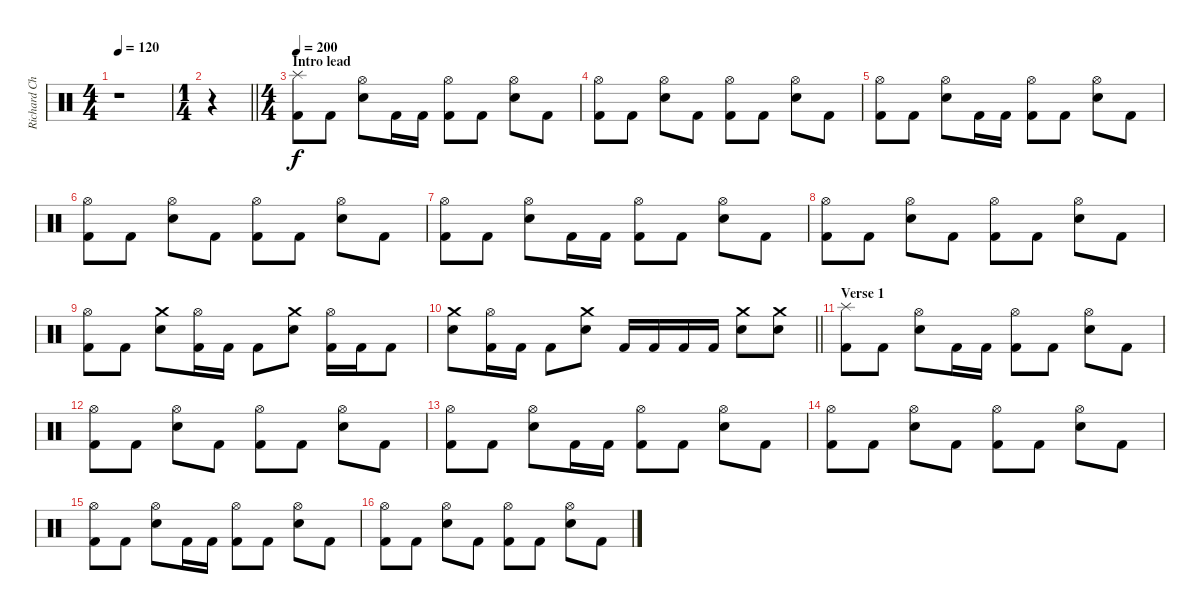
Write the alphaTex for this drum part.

\track ("Richard Christy" "Richard Ch") {instrument percussion}
\staff {score}
\articulation defaults
\ts (4 4)
\tempo 120
\clef neutral
\ks c
r.1{dy f} |
\ts (1 4)
\barLineRight lightlight
r.4 |
\ts (4 4)
\section ("" "Intro lead")
\tempo 200
("Splash (hit)" "Kick (hit) 2").8 "Kick (hit) 2".8 ("Hi-Hat (open)" "Electric Snare (hit)").8 "Kick (hit) 2".16 "Kick (hit) 2".16 ("Hi-Hat (open)" "Kick (hit) 2").8 "Kick (hit) 2".8 ("Hi-Hat (open)" "Electric Snare (hit)").8 "Kick (hit) 2".8 |
("Hi-Hat (open)" "Kick (hit) 2").8 "Kick (hit) 2".8 ("Hi-Hat (open)" "Electric Snare (hit)").8 "Kick (hit) 2".8 ("Hi-Hat (open)" "Kick (hit) 2").8 "Kick (hit) 2".8 ("Hi-Hat (open)" "Electric Snare (hit)").8 "Kick (hit) 2".8 |
("Hi-Hat (open)" "Kick (hit) 2").8 "Kick (hit) 2".8 ("Hi-Hat (open)" "Electric Snare (hit)").8 "Kick (hit) 2".16 "Kick (hit) 2".16 ("Hi-Hat (open)" "Kick (hit) 2").8 "Kick (hit) 2".8 ("Hi-Hat (open)" "Electric Snare (hit)").8 "Kick (hit) 2".8 |
("Hi-Hat (open)" "Kick (hit) 2").8 "Kick (hit) 2".8 ("Hi-Hat (open)" "Electric Snare (hit)").8 "Kick (hit) 2".8 ("Hi-Hat (open)" "Kick (hit) 2").8 "Kick (hit) 2".8 ("Hi-Hat (open)" "Electric Snare (hit)").8 "Kick (hit) 2".8 |
("Hi-Hat (open)" "Kick (hit) 2").8 "Kick (hit) 2".8 ("Hi-Hat (open)" "Electric Snare (hit)").8 "Kick (hit) 2".16 "Kick (hit) 2".16 ("Hi-Hat (open)" "Kick (hit) 2").8 "Kick (hit) 2".8 ("Hi-Hat (open)" "Electric Snare (hit)").8 "Kick (hit) 2".8 |
("Hi-Hat (open)" "Kick (hit) 2").8 "Kick (hit) 2".8 ("Hi-Hat (open)" "Electric Snare (hit)").8 "Kick (hit) 2".8 ("Hi-Hat (open)" "Kick (hit) 2").8 "Kick (hit) 2".8 ("Hi-Hat (open)" "Electric Snare (hit)").8 "Kick (hit) 2".8 |
("Hi-Hat (open)" "Kick (hit) 2").8 "Kick (hit) 2".8 ("Crash medium (hit)" "Electric Snare (hit)").8 ("Hi-Hat (open)" "Kick (hit) 2").16 "Kick (hit) 2".16 "Kick (hit) 2".8 ("Crash medium (hit)" "Electric Snare (hit)").8 ("Hi-Hat (open)" "Kick (hit) 2").16 "Kick (hit) 2".16 "Kick (hit) 2".8 |
\barLineRight lightlight
("Crash medium (hit)" "Electric Snare (hit)").8 ("Hi-Hat (open)" "Kick (hit) 2").16 "Kick (hit) 2".16 "Kick (hit) 2".8 ("Crash medium (hit)" "Electric Snare (hit)").8 "Kick (hit) 2".16 "Kick (hit) 2".16 "Kick (hit) 2".16 "Kick (hit) 2".16 ("Crash medium (hit)" "Electric Snare (hit)").8 ("Crash medium (hit)" "Electric Snare (hit)").8 |
\section ("" "Verse 1")
("Splash (hit)" "Kick (hit) 2").8 "Kick (hit) 2".8 ("Hi-Hat (open)" "Electric Snare (hit)").8 "Kick (hit) 2".16 "Kick (hit) 2".16 ("Hi-Hat (open)" "Kick (hit) 2").8 "Kick (hit) 2".8 ("Hi-Hat (open)" "Electric Snare (hit)").8 "Kick (hit) 2".8 |
("Hi-Hat (open)" "Kick (hit) 2").8 "Kick (hit) 2".8 ("Hi-Hat (open)" "Electric Snare (hit)").8 "Kick (hit) 2".8 ("Hi-Hat (open)" "Kick (hit) 2").8 "Kick (hit) 2".8 ("Hi-Hat (open)" "Electric Snare (hit)").8 "Kick (hit) 2".8 |
("Hi-Hat (open)" "Kick (hit) 2").8 "Kick (hit) 2".8 ("Hi-Hat (open)" "Electric Snare (hit)").8 "Kick (hit) 2".16 "Kick (hit) 2".16 ("Hi-Hat (open)" "Kick (hit) 2").8 "Kick (hit) 2".8 ("Hi-Hat (open)" "Electric Snare (hit)").8 "Kick (hit) 2".8 |
("Hi-Hat (open)" "Kick (hit) 2").8 "Kick (hit) 2".8 ("Hi-Hat (open)" "Electric Snare (hit)").8 "Kick (hit) 2".8 ("Hi-Hat (open)" "Kick (hit) 2").8 "Kick (hit) 2".8 ("Hi-Hat (open)" "Electric Snare (hit)").8 "Kick (hit) 2".8 |
("Hi-Hat (open)" "Kick (hit) 2").8 "Kick (hit) 2".8 ("Hi-Hat (open)" "Electric Snare (hit)").8 "Kick (hit) 2".16 "Kick (hit) 2".16 ("Hi-Hat (open)" "Kick (hit) 2").8 "Kick (hit) 2".8 ("Hi-Hat (open)" "Electric Snare (hit)").8 "Kick (hit) 2".8 |
("Hi-Hat (open)" "Kick (hit) 2").8 "Kick (hit) 2".8 ("Hi-Hat (open)" "Electric Snare (hit)").8 "Kick (hit) 2".8 ("Hi-Hat (open)" "Kick (hit) 2").8 "Kick (hit) 2".8 ("Hi-Hat (open)" "Electric Snare (hit)").8 "Kick (hit) 2".8
